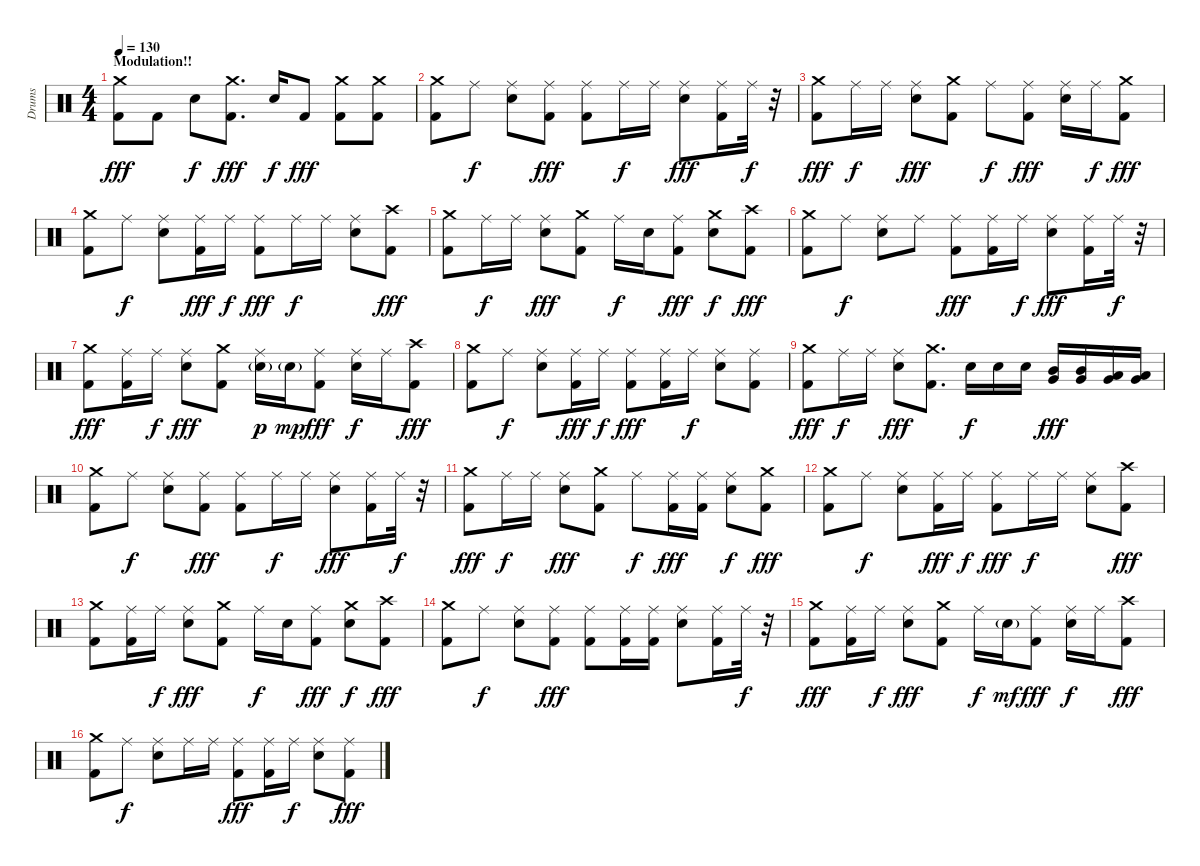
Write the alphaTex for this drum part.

\track ("Drums" "Drums") {instrument percussion}
\staff {score}
\articulation defaults
\ts (4 4)
\section ("" "Modulation!!")
\tempo 130
\clef neutral
\ks c
("Crash medium (hit)" "Kick (hit) 2").8{dy fff} "Kick (hit) 2".8 "Snare (hit) 2".8{dy f} ("Crash medium (hit)" "Kick (hit) 2").8{d dy fff} "Snare (hit) 2".16{dy f} "Kick (hit) 2".8{dy fff} ("Crash medium (hit)" "Kick (hit) 2").8 ("Crash medium (hit)" "Kick (hit) 2").8 |
("Crash medium (hit)" "Kick (hit) 2").8 "Ride (middle)".8{dy f} ("Ride (middle)" "Snare (hit) 2").8 ("Ride (middle)" "Kick (hit) 2").8{dy fff} ("Ride (middle)" "Kick (hit) 2").8 "Ride (middle)".16{dy f} "Ride (middle)".16 ("Ride (middle)" "Snare (hit) 2").8{dy fff} ("Ride (middle)" "Kick (hit) 2").16 "Ride (middle)".32{dy f} r.32 |
("Crash medium (hit)" "Kick (hit) 2").8{dy fff} "Ride (middle)".16{dy f} "Ride (middle)".16 ("Ride (middle)" "Snare (hit) 2").8{dy fff} ("Crash medium (hit)" "Kick (hit) 2").8 "Ride (middle)".8{dy f} ("Ride (middle)" "Kick (hit) 2").8{dy fff} ("Ride (middle)" "Snare (hit) 2").16 "Ride (middle)".16{dy f} ("Crash medium (hit)" "Kick (hit) 2").8{dy fff} |
("Crash medium (hit)" "Kick (hit) 2").8 "Ride (middle)".8{dy f} ("Ride (middle)" "Snare (hit) 2").8 ("Ride (middle)" "Kick (hit) 2").16{dy fff} "Ride (middle)".16{dy f} ("Ride (middle)" "Kick (hit) 2").8{dy fff} "Ride (middle)".16{dy f} "Ride (middle)".16 ("Ride (middle)" "Snare (hit) 2").8 ("Crash high (hit)" "Kick (hit) 2").8{dy fff} |
("Crash medium (hit)" "Kick (hit) 2").8 "Ride (middle)".16{dy f} "Ride (middle)".16 ("Ride (middle)" "Snare (hit) 2").8{dy fff} ("Crash medium (hit)" "Kick (hit) 2").8 "Ride (middle)".16{dy f} "Snare (hit) 2".16 ("Ride (middle)" "Kick (hit) 2").8{dy fff} ("Crash medium (hit)" "Snare (hit) 2").8{dy f} ("Crash high (hit)" "Kick (hit) 2").8{dy fff} |
("Crash medium (hit)" "Kick (hit) 2").8 "Ride (middle)".8{dy f} ("Ride (middle)" "Snare (hit) 2").8 "Ride (middle)".8 ("Ride (middle)" "Kick (hit) 2").8{dy fff} ("Ride (middle)" "Kick (hit) 2").16 "Ride (middle)".16{dy f} ("Ride (middle)" "Snare (hit) 2").8{dy fff} ("Ride (middle)" "Kick (hit) 2").16 "Ride (middle)".32{dy f} r.32 |
("Crash medium (hit)" "Kick (hit) 2").8{dy fff} ("Ride (middle)" "Kick (hit) 2").16 "Ride (middle)".16{dy f} ("Ride (middle)" "Snare (hit) 2").8{dy fff} ("Crash medium (hit)" "Kick (hit) 2").8 ("Ride (middle)" "Snare (hit) 2"{g}).16{dy p} "Snare (hit) 2"{g}.16{dy mp} ("Ride (middle)" "Kick (hit) 2").8{dy fff} ("Ride (middle)" "Snare (hit) 2").16{dy f} "Ride (middle)".16 ("Crash high (hit)" "Kick (hit) 2").8{dy fff} |
("Crash medium (hit)" "Kick (hit) 2").8 "Ride (middle)".8{dy f} ("Ride (middle)" "Snare (hit) 2").8 ("Ride (middle)" "Kick (hit) 2").16{dy fff} "Ride (middle)".16{dy f} ("Ride (middle)" "Kick (hit) 2").8{dy fff} ("Ride (middle)" "Kick (hit) 2").16 "Ride (middle)".16{dy f} ("Ride (middle)" "Snare (hit) 2").8 ("Ride (middle)" "Kick (hit) 2").8 |
("Crash medium (hit)" "Kick (hit) 2").8{dy fff} "Ride (middle)".16{dy f} "Ride (middle)".16 ("Ride (middle)" "Snare (hit) 2").8{dy fff} ("Crash medium (hit)" "Kick (hit) 2").8{d} "Snare (hit) 2".16{dy f} "Snare (hit) 2".16 "Snare (hit) 2".16 ("Mid Tom (hit)" "Very Low Tom (hit)").16{dy fff} ("Mid Tom (hit)" "Very Low Tom (hit)").16 ("Low Tom (hit)" "Very Low Tom (hit)").16 ("Low Tom (hit)" "Very Low Tom (hit)").16 |
("Crash medium (hit)" "Kick (hit) 2").8 "Ride (middle)".8{dy f} ("Ride (middle)" "Snare (hit) 2").8 ("Ride (middle)" "Kick (hit) 2").8{dy fff} ("Ride (middle)" "Kick (hit) 2").8 "Ride (middle)".16{dy f} "Ride (middle)".16 ("Ride (middle)" "Snare (hit) 2").8{dy fff} ("Ride (middle)" "Kick (hit) 2").16 "Ride (middle)".32{dy f} r.32 |
("Crash medium (hit)" "Kick (hit) 2").8{dy fff} "Ride (middle)".16{dy f} "Ride (middle)".16 ("Ride (middle)" "Snare (hit) 2").8{dy fff} ("Crash medium (hit)" "Kick (hit) 2").8 "Ride (middle)".8{dy f} ("Ride (middle)" "Kick (hit) 2").16{dy fff} ("Ride (middle)" "Kick (hit) 2").16 ("Ride (middle)" "Snare (hit) 2").8{dy f} ("Crash medium (hit)" "Kick (hit) 2").8{dy fff} |
("Crash medium (hit)" "Kick (hit) 2").8 "Ride (middle)".8{dy f} ("Ride (middle)" "Snare (hit) 2").8 ("Ride (middle)" "Kick (hit) 2").16{dy fff} "Ride (middle)".16{dy f} ("Ride (middle)" "Kick (hit) 2").8{dy fff} "Ride (middle)".16{dy f} "Ride (middle)".16 ("Ride (middle)" "Snare (hit) 2").8 ("Crash high (hit)" "Kick (hit) 2").8{dy fff} |
("Crash medium (hit)" "Kick (hit) 2").8 ("Ride (middle)" "Kick (hit) 2").16 "Ride (middle)".16{dy f} ("Ride (middle)" "Snare (hit) 2").8{dy fff} ("Crash medium (hit)" "Kick (hit) 2").8 "Ride (middle)".16{dy f} "Snare (hit) 2".16 ("Ride (middle)" "Kick (hit) 2").8{dy fff} ("Crash medium (hit)" "Snare (hit) 2").8{dy f} ("Crash high (hit)" "Kick (hit) 2").8{dy fff} |
("Crash medium (hit)" "Kick (hit) 2").8 "Ride (middle)".8{dy f} ("Ride (middle)" "Snare (hit) 2").8 ("Ride (middle)" "Kick (hit) 2").8{dy fff} ("Ride (middle)" "Kick (hit) 2").8 ("Ride (middle)" "Kick (hit) 2").16 ("Ride (middle)" "Kick (hit) 2").16 ("Ride (middle)" "Snare (hit) 2").8 ("Ride (middle)" "Kick (hit) 2").16 "Ride (middle)".32{dy f} r.32 |
("Crash medium (hit)" "Kick (hit) 2").8{dy fff} ("Ride (middle)" "Kick (hit) 2").16 "Ride (middle)".16{dy f} ("Ride (middle)" "Snare (hit) 2").8{dy fff} ("Crash medium (hit)" "Kick (hit) 2").8 "Ride (middle)".16{dy f} "Snare (hit) 2"{g}.16{dy mf} ("Ride (middle)" "Kick (hit) 2").8{dy fff} ("Ride (middle)" "Snare (hit) 2").16{dy f} "Ride (middle)".16 ("Crash high (hit)" "Kick (hit) 2").8{dy fff} |
("Crash medium (hit)" "Kick (hit) 2").8 "Ride (middle)".8{dy f} ("Ride (middle)" "Snare (hit) 2").8 "Ride (middle)".16 "Ride (middle)".16 ("Ride (middle)" "Kick (hit) 2").8{dy fff} ("Ride (middle)" "Kick (hit) 2").16 "Ride (middle)".16{dy f} ("Ride (middle)" "Snare (hit) 2").8 ("Ride (middle)" "Kick (hit) 2").8{dy fff}
